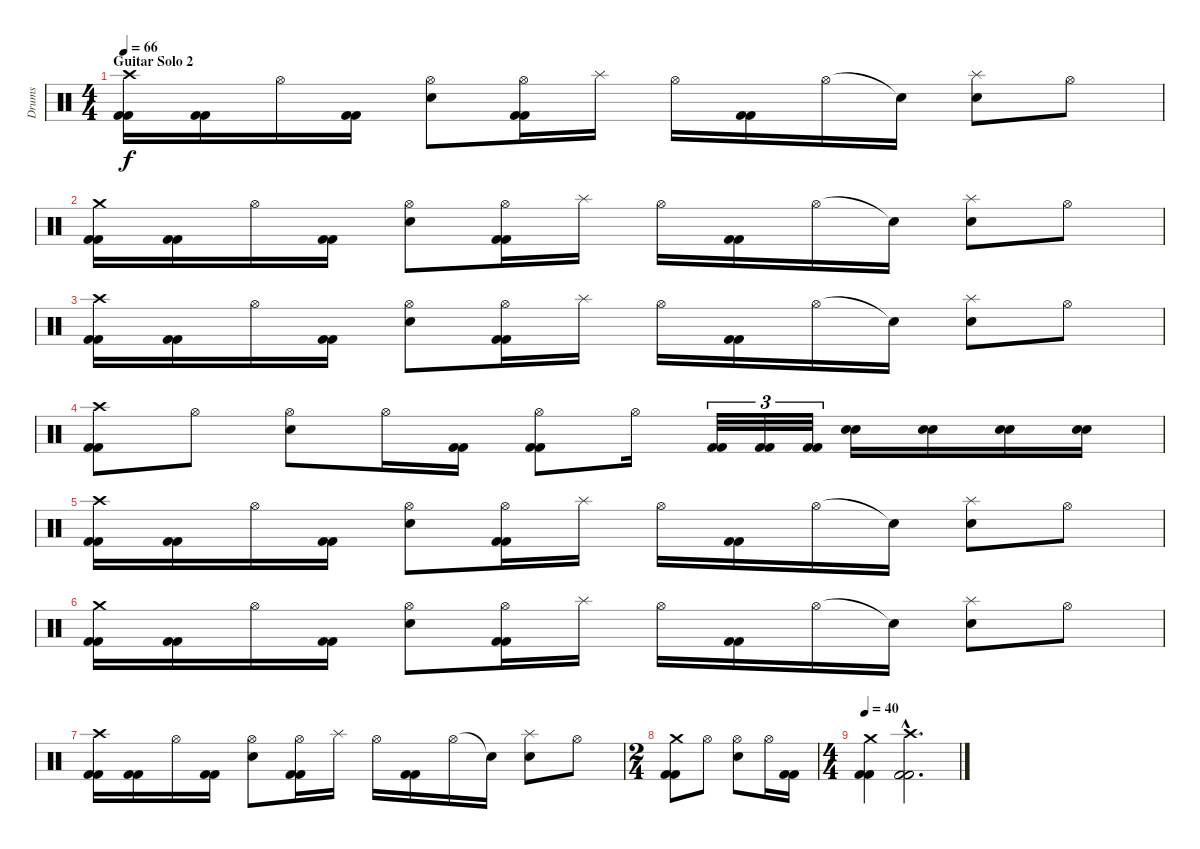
\track ("Drums" "Drums") {instrument percussion}
\staff {score}
\articulation defaults
\ts (4 4)
\section ("" "Guitar Solo 2")
\tempo 66
\clef neutral
\ks c
("Crash high (hit)" "Kick (hit) 2" "Kick (hit) 2").16{dy f} ("Kick (hit) 2" "Kick (hit) 2").16 "Hi-Hat (open)".16 ("Kick (hit) 2" "Kick (hit) 2").16 ("Hi-Hat (open)" "Snare (hit) 2").8 ("Hi-Hat (open)" "Kick (hit) 2" "Kick (hit) 2").16 "Splash (hit)".16 "Hi-Hat (open)".16 ("Kick (hit) 2" "Kick (hit) 2").16 "Hi-Hat (open)".16 "Snare (hit)"{t}.16 ("Splash (hit)" "Snare (hit) 2").8 "Hi-Hat (open)".8 |
("Crash medium (hit)" "Kick (hit) 2" "Kick (hit) 2").16 ("Kick (hit) 2" "Kick (hit) 2").16 "Hi-Hat (open)".16 ("Kick (hit) 2" "Kick (hit) 2").16 ("Hi-Hat (open)" "Snare (hit) 2").8 ("Hi-Hat (open)" "Kick (hit) 2" "Kick (hit) 2").16 "Splash (hit)".16 "Hi-Hat (open)".16 ("Kick (hit) 2" "Kick (hit) 2").16 "Hi-Hat (open)".16 "Snare (hit)"{t}.16 ("Splash (hit)" "Snare (hit) 2").8 "Hi-Hat (open)".8 |
("Crash high (hit)" "Kick (hit) 2" "Kick (hit) 2").16 ("Kick (hit) 2" "Kick (hit) 2").16 "Hi-Hat (open)".16 ("Kick (hit) 2" "Kick (hit) 2").16 ("Hi-Hat (open)" "Snare (hit) 2").8 ("Hi-Hat (open)" "Kick (hit) 2" "Kick (hit) 2").16 "Splash (hit)".16 "Hi-Hat (open)".16 ("Kick (hit) 2" "Kick (hit) 2").16 "Hi-Hat (open)".16 "Snare (hit)"{t}.16 ("Splash (hit)" "Snare (hit) 2").8 "Hi-Hat (open)".8 |
("Crash high (hit)" "Kick (hit) 2" "Kick (hit) 2").8 "Hi-Hat (open)".8 ("Hi-Hat (open)" "Snare (hit) 2").8 "Hi-Hat (open)".16 ("Kick (hit) 2" "Kick (hit) 2").16 ("Hi-Hat (open)" "Kick (hit) 2" "Kick (hit) 2").8 "Hi-Hat (open)".16 ("Kick (hit) 2" "Kick (hit) 2").32{tu (3 2)} ("Kick (hit) 2" "Kick (hit) 2").32{tu (3 2)} ("Kick (hit) 2" "Kick (hit) 2").32{tu (3 2)} ("Snare (hit) 2" "Snare (hit) 2").16 ("Snare (hit) 2" "Snare (hit) 2").16 ("Snare (hit) 2" "Snare (hit) 2").16 ("Snare (hit) 2" "Snare (hit) 2").16 |
("Crash high (hit)" "Kick (hit) 2" "Kick (hit) 2").16 ("Kick (hit) 2" "Kick (hit) 2").16 "Hi-Hat (open)".16 ("Kick (hit) 2" "Kick (hit) 2").16 ("Hi-Hat (open)" "Snare (hit) 2").8 ("Hi-Hat (open)" "Kick (hit) 2" "Kick (hit) 2").16 "Splash (hit)".16 "Hi-Hat (open)".16 ("Kick (hit) 2" "Kick (hit) 2").16 "Hi-Hat (open)".16 "Snare (hit)"{t}.16 ("Splash (hit)" "Snare (hit) 2").8 "Hi-Hat (open)".8 |
("Crash medium (hit)" "Kick (hit) 2" "Kick (hit) 2").16 ("Kick (hit) 2" "Kick (hit) 2").16 "Hi-Hat (open)".16 ("Kick (hit) 2" "Kick (hit) 2").16 ("Hi-Hat (open)" "Snare (hit) 2").8 ("Hi-Hat (open)" "Kick (hit) 2" "Kick (hit) 2").16 "Splash (hit)".16 "Hi-Hat (open)".16 ("Kick (hit) 2" "Kick (hit) 2").16 "Hi-Hat (open)".16 "Snare (hit)"{t}.16 ("Splash (hit)" "Snare (hit) 2").8 "Hi-Hat (open)".8 |
("Crash high (hit)" "Kick (hit) 2" "Kick (hit) 2").16 ("Kick (hit) 2" "Kick (hit) 2").16 "Hi-Hat (open)".16 ("Kick (hit) 2" "Kick (hit) 2").16 ("Hi-Hat (open)" "Snare (hit) 2").8 ("Hi-Hat (open)" "Kick (hit) 2" "Kick (hit) 2").16 "Splash (hit)".16 "Hi-Hat (open)".16 ("Kick (hit) 2" "Kick (hit) 2").16 "Hi-Hat (open)".16 "Snare (hit)"{t}.16 ("Splash (hit)" "Snare (hit) 2").8 "Hi-Hat (open)".8 |
\ts (2 4)
("Crash medium (hit)" "Kick (hit) 2" "Kick (hit) 2").8 "Hi-Hat (open)".8 ("Hi-Hat (open)" "Snare (hit) 2").8 "Hi-Hat (open)".16 ("Kick (hit) 2" "Kick (hit) 2").16 |
\ts (4 4)
\tempo 40
("Crash medium (hit)" "Kick (hit) 2" "Kick (hit) 2").4 ("Crash high (hit)"{hac} "Kick (hit) 2"{hac} "Kick (hit) 2"{hac}).2{d}
